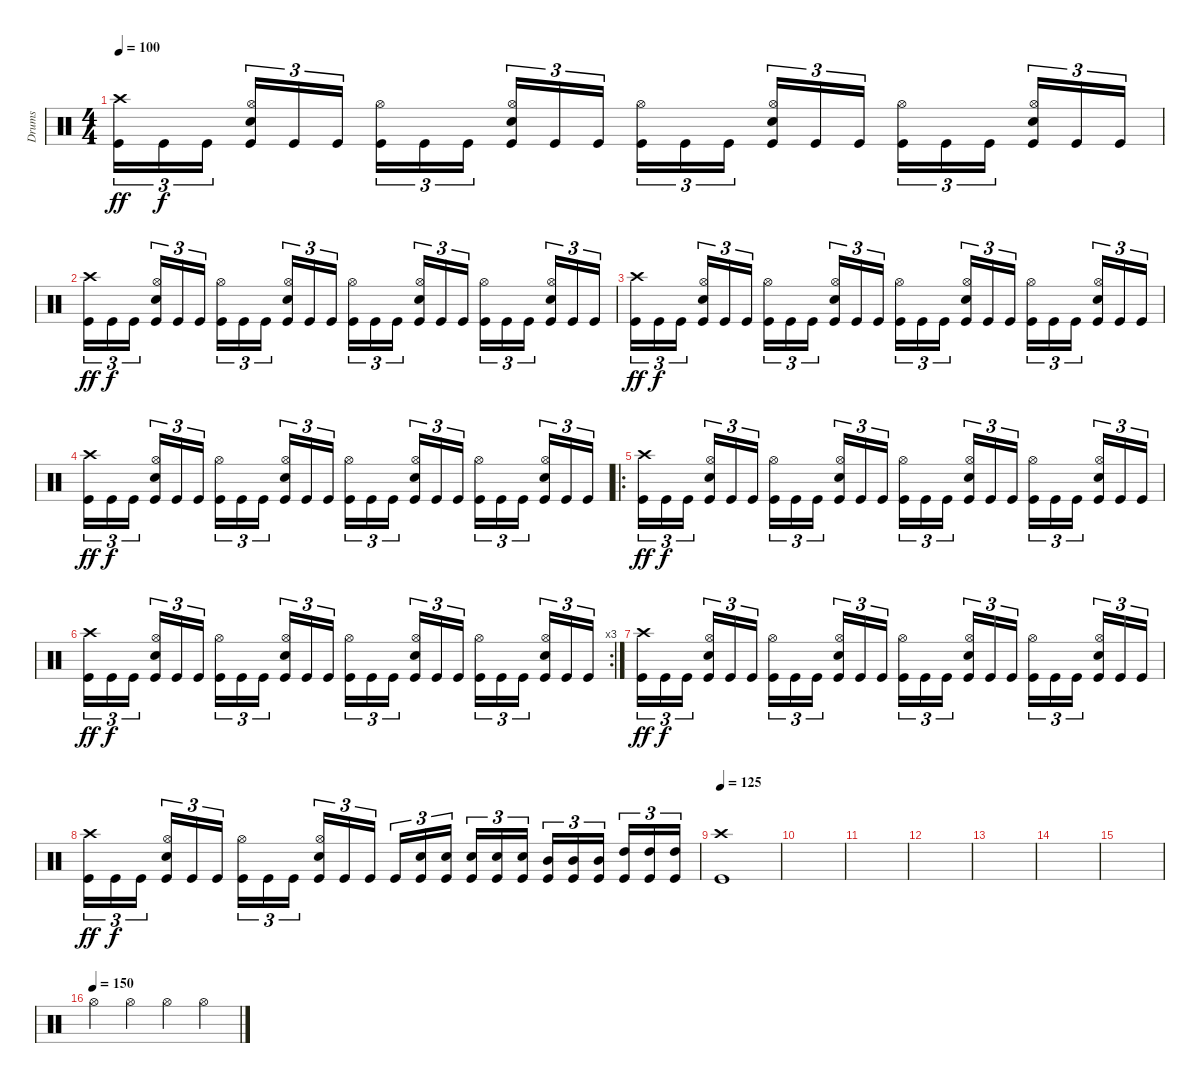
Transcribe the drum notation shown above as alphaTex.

\track ("Drums" "Drums") {instrument percussion}
\staff {score}
\articulation defaults
\ts (4 4)
\tempo 100
\clef neutral
\ks c
("Crash high (hit)" "Kick (hit)").16{tu (3 2) dy ff} "Kick (hit)".16{tu (3 2) dy f} "Kick (hit)".16{tu (3 2)} ("Hi-Hat (open)" "Electric Snare (hit)" "Kick (hit)").16{tu (3 2)} "Kick (hit)".16{tu (3 2)} "Kick (hit)".16{tu (3 2)} ("Hi-Hat (open)" "Kick (hit)").16{tu (3 2)} "Kick (hit)".16{tu (3 2)} "Kick (hit)".16{tu (3 2)} ("Hi-Hat (open)" "Electric Snare (hit)" "Kick (hit)").16{tu (3 2)} "Kick (hit)".16{tu (3 2)} "Kick (hit)".16{tu (3 2)} ("Hi-Hat (open)" "Kick (hit)").16{tu (3 2)} "Kick (hit)".16{tu (3 2)} "Kick (hit)".16{tu (3 2)} ("Hi-Hat (open)" "Electric Snare (hit)" "Kick (hit)").16{tu (3 2)} "Kick (hit)".16{tu (3 2)} "Kick (hit)".16{tu (3 2)} ("Hi-Hat (open)" "Kick (hit)").16{tu (3 2)} "Kick (hit)".16{tu (3 2)} "Kick (hit)".16{tu (3 2)} ("Hi-Hat (open)" "Electric Snare (hit)" "Kick (hit)").16{tu (3 2)} "Kick (hit)".16{tu (3 2)} "Kick (hit)".16{tu (3 2)} |
("Crash high (hit)" "Kick (hit)").16{tu (3 2) dy ff} "Kick (hit)".16{tu (3 2) dy f} "Kick (hit)".16{tu (3 2)} ("Hi-Hat (open)" "Electric Snare (hit)" "Kick (hit)").16{tu (3 2)} "Kick (hit)".16{tu (3 2)} "Kick (hit)".16{tu (3 2)} ("Hi-Hat (open)" "Kick (hit)").16{tu (3 2)} "Kick (hit)".16{tu (3 2)} "Kick (hit)".16{tu (3 2)} ("Hi-Hat (open)" "Electric Snare (hit)" "Kick (hit)").16{tu (3 2)} "Kick (hit)".16{tu (3 2)} "Kick (hit)".16{tu (3 2)} ("Hi-Hat (open)" "Kick (hit)").16{tu (3 2)} "Kick (hit)".16{tu (3 2)} "Kick (hit)".16{tu (3 2)} ("Hi-Hat (open)" "Electric Snare (hit)" "Kick (hit)").16{tu (3 2)} "Kick (hit)".16{tu (3 2)} "Kick (hit)".16{tu (3 2)} ("Hi-Hat (open)" "Kick (hit)").16{tu (3 2)} "Kick (hit)".16{tu (3 2)} "Kick (hit)".16{tu (3 2)} ("Hi-Hat (open)" "Electric Snare (hit)" "Kick (hit)").16{tu (3 2)} "Kick (hit)".16{tu (3 2)} "Kick (hit)".16{tu (3 2)} |
("Crash high (hit)" "Kick (hit)").16{tu (3 2) dy ff} "Kick (hit)".16{tu (3 2) dy f} "Kick (hit)".16{tu (3 2)} ("Hi-Hat (open)" "Electric Snare (hit)" "Kick (hit)").16{tu (3 2)} "Kick (hit)".16{tu (3 2)} "Kick (hit)".16{tu (3 2)} ("Hi-Hat (open)" "Kick (hit)").16{tu (3 2)} "Kick (hit)".16{tu (3 2)} "Kick (hit)".16{tu (3 2)} ("Hi-Hat (open)" "Electric Snare (hit)" "Kick (hit)").16{tu (3 2)} "Kick (hit)".16{tu (3 2)} "Kick (hit)".16{tu (3 2)} ("Hi-Hat (open)" "Kick (hit)").16{tu (3 2)} "Kick (hit)".16{tu (3 2)} "Kick (hit)".16{tu (3 2)} ("Hi-Hat (open)" "Electric Snare (hit)" "Kick (hit)").16{tu (3 2)} "Kick (hit)".16{tu (3 2)} "Kick (hit)".16{tu (3 2)} ("Hi-Hat (open)" "Kick (hit)").16{tu (3 2)} "Kick (hit)".16{tu (3 2)} "Kick (hit)".16{tu (3 2)} ("Hi-Hat (open)" "Electric Snare (hit)" "Kick (hit)").16{tu (3 2)} "Kick (hit)".16{tu (3 2)} "Kick (hit)".16{tu (3 2)} |
("Crash high (hit)" "Kick (hit)").16{tu (3 2) dy ff} "Kick (hit)".16{tu (3 2) dy f} "Kick (hit)".16{tu (3 2)} ("Hi-Hat (open)" "Electric Snare (hit)" "Kick (hit)").16{tu (3 2)} "Kick (hit)".16{tu (3 2)} "Kick (hit)".16{tu (3 2)} ("Hi-Hat (open)" "Kick (hit)").16{tu (3 2)} "Kick (hit)".16{tu (3 2)} "Kick (hit)".16{tu (3 2)} ("Hi-Hat (open)" "Electric Snare (hit)" "Kick (hit)").16{tu (3 2)} "Kick (hit)".16{tu (3 2)} "Kick (hit)".16{tu (3 2)} ("Hi-Hat (open)" "Kick (hit)").16{tu (3 2)} "Kick (hit)".16{tu (3 2)} "Kick (hit)".16{tu (3 2)} ("Hi-Hat (open)" "Electric Snare (hit)" "Kick (hit)").16{tu (3 2)} "Kick (hit)".16{tu (3 2)} "Kick (hit)".16{tu (3 2)} ("Hi-Hat (open)" "Kick (hit)").16{tu (3 2)} "Kick (hit)".16{tu (3 2)} "Kick (hit)".16{tu (3 2)} ("Hi-Hat (open)" "Electric Snare (hit)" "Kick (hit)").16{tu (3 2)} "Kick (hit)".16{tu (3 2)} "Kick (hit)".16{tu (3 2)} |
\ro
("Crash high (hit)" "Kick (hit)").16{tu (3 2) dy ff} "Kick (hit)".16{tu (3 2) dy f} "Kick (hit)".16{tu (3 2)} ("Hi-Hat (open)" "Electric Snare (hit)" "Kick (hit)").16{tu (3 2)} "Kick (hit)".16{tu (3 2)} "Kick (hit)".16{tu (3 2)} ("Hi-Hat (open)" "Kick (hit)").16{tu (3 2)} "Kick (hit)".16{tu (3 2)} "Kick (hit)".16{tu (3 2)} ("Hi-Hat (open)" "Electric Snare (hit)" "Kick (hit)").16{tu (3 2)} "Kick (hit)".16{tu (3 2)} "Kick (hit)".16{tu (3 2)} ("Hi-Hat (open)" "Kick (hit)").16{tu (3 2)} "Kick (hit)".16{tu (3 2)} "Kick (hit)".16{tu (3 2)} ("Hi-Hat (open)" "Electric Snare (hit)" "Kick (hit)").16{tu (3 2)} "Kick (hit)".16{tu (3 2)} "Kick (hit)".16{tu (3 2)} ("Hi-Hat (open)" "Kick (hit)").16{tu (3 2)} "Kick (hit)".16{tu (3 2)} "Kick (hit)".16{tu (3 2)} ("Hi-Hat (open)" "Electric Snare (hit)" "Kick (hit)").16{tu (3 2)} "Kick (hit)".16{tu (3 2)} "Kick (hit)".16{tu (3 2)} |
\rc 3
("Crash high (hit)" "Kick (hit)").16{tu (3 2) dy ff} "Kick (hit)".16{tu (3 2) dy f} "Kick (hit)".16{tu (3 2)} ("Hi-Hat (open)" "Electric Snare (hit)" "Kick (hit)").16{tu (3 2)} "Kick (hit)".16{tu (3 2)} "Kick (hit)".16{tu (3 2)} ("Hi-Hat (open)" "Kick (hit)").16{tu (3 2)} "Kick (hit)".16{tu (3 2)} "Kick (hit)".16{tu (3 2)} ("Hi-Hat (open)" "Electric Snare (hit)" "Kick (hit)").16{tu (3 2)} "Kick (hit)".16{tu (3 2)} "Kick (hit)".16{tu (3 2)} ("Hi-Hat (open)" "Kick (hit)").16{tu (3 2)} "Kick (hit)".16{tu (3 2)} "Kick (hit)".16{tu (3 2)} ("Hi-Hat (open)" "Electric Snare (hit)" "Kick (hit)").16{tu (3 2)} "Kick (hit)".16{tu (3 2)} "Kick (hit)".16{tu (3 2)} ("Hi-Hat (open)" "Kick (hit)").16{tu (3 2)} "Kick (hit)".16{tu (3 2)} "Kick (hit)".16{tu (3 2)} ("Hi-Hat (open)" "Electric Snare (hit)" "Kick (hit)").16{tu (3 2)} "Kick (hit)".16{tu (3 2)} "Kick (hit)".16{tu (3 2)} |
("Crash high (hit)" "Kick (hit)").16{tu (3 2) dy ff} "Kick (hit)".16{tu (3 2) dy f} "Kick (hit)".16{tu (3 2)} ("Hi-Hat (open)" "Electric Snare (hit)" "Kick (hit)").16{tu (3 2)} "Kick (hit)".16{tu (3 2)} "Kick (hit)".16{tu (3 2)} ("Hi-Hat (open)" "Kick (hit)").16{tu (3 2)} "Kick (hit)".16{tu (3 2)} "Kick (hit)".16{tu (3 2)} ("Hi-Hat (open)" "Electric Snare (hit)" "Kick (hit)").16{tu (3 2)} "Kick (hit)".16{tu (3 2)} "Kick (hit)".16{tu (3 2)} ("Hi-Hat (open)" "Kick (hit)").16{tu (3 2)} "Kick (hit)".16{tu (3 2)} "Kick (hit)".16{tu (3 2)} ("Hi-Hat (open)" "Electric Snare (hit)" "Kick (hit)").16{tu (3 2)} "Kick (hit)".16{tu (3 2)} "Kick (hit)".16{tu (3 2)} ("Hi-Hat (open)" "Kick (hit)").16{tu (3 2)} "Kick (hit)".16{tu (3 2)} "Kick (hit)".16{tu (3 2)} ("Hi-Hat (open)" "Electric Snare (hit)" "Kick (hit)").16{tu (3 2)} "Kick (hit)".16{tu (3 2)} "Kick (hit)".16{tu (3 2)} |
("Crash high (hit)" "Kick (hit)").16{tu (3 2) dy ff} "Kick (hit)".16{tu (3 2) dy f} "Kick (hit)".16{tu (3 2)} ("Hi-Hat (open)" "Electric Snare (hit)" "Kick (hit)").16{tu (3 2)} "Kick (hit)".16{tu (3 2)} "Kick (hit)".16{tu (3 2)} ("Hi-Hat (open)" "Kick (hit)").16{tu (3 2)} "Kick (hit)".16{tu (3 2)} "Kick (hit)".16{tu (3 2)} ("Hi-Hat (open)" "Electric Snare (hit)" "Kick (hit)").16{tu (3 2)} "Kick (hit)".16{tu (3 2)} "Kick (hit)".16{tu (3 2)} "Kick (hit)".16{tu (3 2)} ("Electric Snare (hit)" "Kick (hit)").16{tu (3 2)} ("Electric Snare (hit)" "Kick (hit)").16{tu (3 2)} ("Electric Snare (hit)" "Kick (hit)").16{tu (3 2)} ("Electric Snare (hit)" "Kick (hit)").16{tu (3 2)} ("Electric Snare (hit)" "Kick (hit)").16{tu (3 2)} ("Mid Tom (hit)" "Kick (hit)").16{tu (3 2)} ("Mid Tom (hit)" "Kick (hit)").16{tu (3 2)} ("Mid Tom (hit)" "Kick (hit)").16{tu (3 2)} ("High Tom (hit)" "Kick (hit)").16{tu (3 2)} ("High Tom (hit)" "Kick (hit)").16{tu (3 2)} ("High Tom (hit)" "Kick (hit)").16{tu (3 2)} |
\tempo 125
("Crash high (hit)" "Kick (hit)").1 |
|
|
|
|
|
|
\tempo (150)
"Hi-Hat (open)".4 "Hi-Hat (open)".4 "Hi-Hat (open)".4 "Hi-Hat (open)".4
